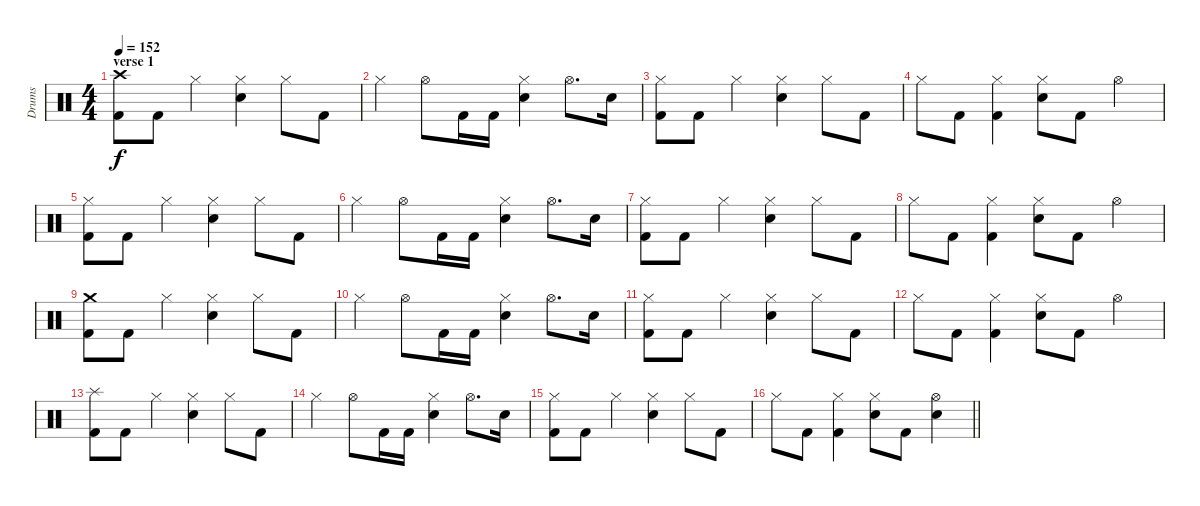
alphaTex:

\track ("Drums" "Drums") {instrument percussion}
\staff {score}
\articulation defaults
\ts (4 4)
\section ("" "verse 1")
\tempo 152
\clef neutral
\ks c
("Crash high (hit)" "Kick (hit) 2").8{dy f} "Kick (hit) 2".8 "Hi-Hat (closed)".4 ("Hi-Hat (closed)" "Electric Snare (hit)").4 "Hi-Hat (closed)".8 "Kick (hit) 2".8 |
"Hi-Hat (closed)".4 "Hi-Hat (open)".8 "Kick (hit) 2".16 "Kick (hit) 2".16 ("Hi-Hat (closed)" "Electric Snare (hit)").4 "Hi-Hat (open)".8{d} "Electric Snare (hit)".16 |
("Hi-Hat (closed)" "Kick (hit) 2").8 "Kick (hit) 2".8 "Hi-Hat (closed)".4 ("Hi-Hat (closed)" "Electric Snare (hit)").4 "Hi-Hat (closed)".8 "Kick (hit) 2".8 |
"Hi-Hat (closed)".8 "Kick (hit) 2".8 ("Hi-Hat (closed)" "Kick (hit) 2").4 ("Hi-Hat (closed)" "Electric Snare (hit)").8 "Kick (hit) 2".8 "Hi-Hat (open)".4 |
("Hi-Hat (closed)" "Kick (hit) 2").8 "Kick (hit) 2".8 "Hi-Hat (closed)".4 ("Hi-Hat (closed)" "Electric Snare (hit)").4 "Hi-Hat (closed)".8 "Kick (hit) 2".8 |
"Hi-Hat (closed)".4 "Hi-Hat (open)".8 "Kick (hit) 2".16 "Kick (hit) 2".16 ("Hi-Hat (closed)" "Electric Snare (hit)").4 "Hi-Hat (open)".8{d} "Electric Snare (hit)".16 |
("Hi-Hat (closed)" "Kick (hit) 2").8 "Kick (hit) 2".8 "Hi-Hat (closed)".4 ("Hi-Hat (closed)" "Electric Snare (hit)").4 "Hi-Hat (closed)".8 "Kick (hit) 2".8 |
"Hi-Hat (closed)".8 "Kick (hit) 2".8 ("Hi-Hat (closed)" "Kick (hit) 2").4 ("Hi-Hat (closed)" "Electric Snare (hit)").8 "Kick (hit) 2".8 "Hi-Hat (open)".4 |
("Crash medium (hit)" "Kick (hit) 2").8 "Kick (hit) 2".8 "Hi-Hat (closed)".4 ("Hi-Hat (closed)" "Electric Snare (hit)").4 "Hi-Hat (closed)".8 "Kick (hit) 2".8 |
"Hi-Hat (closed)".4 "Hi-Hat (open)".8 "Kick (hit) 2".16 "Kick (hit) 2".16 ("Hi-Hat (closed)" "Electric Snare (hit)").4 "Hi-Hat (open)".8{d} "Electric Snare (hit)".16 |
("Hi-Hat (closed)" "Kick (hit) 2").8 "Kick (hit) 2".8 "Hi-Hat (closed)".4 ("Hi-Hat (closed)" "Electric Snare (hit)").4 "Hi-Hat (closed)".8 "Kick (hit) 2".8 |
"Hi-Hat (closed)".8 "Kick (hit) 2".8 ("Hi-Hat (closed)" "Kick (hit) 2").4 ("Hi-Hat (closed)" "Electric Snare (hit)").8 "Kick (hit) 2".8 "Hi-Hat (open)".4 |
("Splash (hit)" "Kick (hit) 2").8 "Kick (hit) 2".8 "Hi-Hat (closed)".4 ("Hi-Hat (closed)" "Electric Snare (hit)").4 "Hi-Hat (closed)".8 "Kick (hit) 2".8 |
"Hi-Hat (closed)".4 "Hi-Hat (open)".8 "Kick (hit) 2".16 "Kick (hit) 2".16 ("Hi-Hat (closed)" "Electric Snare (hit)").4 "Hi-Hat (open)".8{d} "Electric Snare (hit)".16 |
("Hi-Hat (closed)" "Kick (hit) 2").8 "Kick (hit) 2".8 "Hi-Hat (closed)".4 ("Hi-Hat (closed)" "Electric Snare (hit)").4 "Hi-Hat (closed)".8 "Kick (hit) 2".8 |
\barLineRight lightlight "Hi-Hat (closed)".8 "Kick (hit) 2".8
("Hi-Hat (closed)" "Kick (hit) 2").4 ("Hi-Hat (closed)" "Electric Snare (hit)").8 "Kick (hit) 2".8 ("Hi-Hat (open)" "Electric Snare (hit)").4
